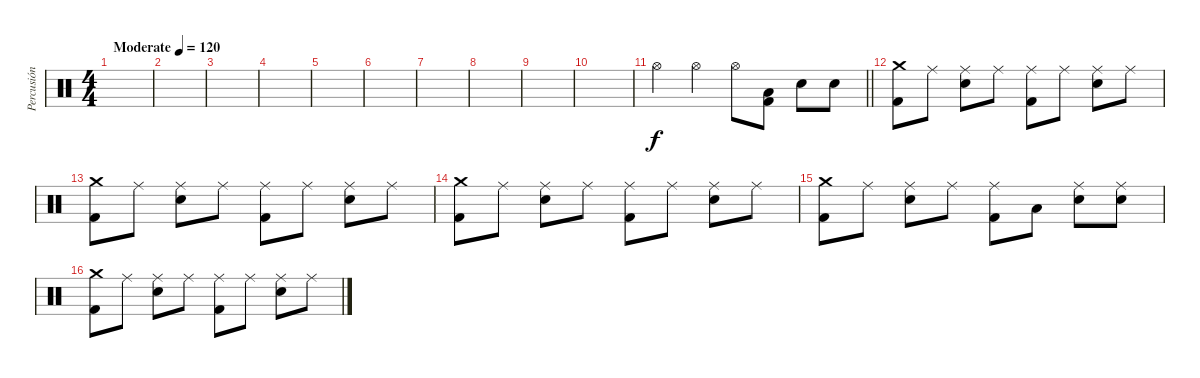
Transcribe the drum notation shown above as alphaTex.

\track ("Percusión" "Percusión") {instrument percussion}
\staff {score}
\articulation defaults
\ts (4 4)
\tempo (120 "Moderate")
\clef neutral
\ks c
|
|
|
|
|
|
|
|
|
|
\barLineRight lightlight "Hi-Hat (open)".4 "Hi-Hat (open)".4 "Hi-Hat (open)".8
("Low Floor Tom (hit)" "Kick (hit) 2").8 "Electric Snare (hit)".8 "Electric Snare (hit)".8 |
("Crash medium (hit)" "Kick (hit) 2").8 "Ride (middle)".8 ("Ride (middle)" "Electric Snare (hit)").8 "Ride (middle)".8 ("Ride (middle)" "Kick (hit) 2").8 "Ride (middle)".8 ("Ride (middle)" "Electric Snare (hit)").8 "Ride (middle)".8 |
("Crash medium (hit)" "Kick (hit) 2").8 "Ride (middle)".8 ("Ride (middle)" "Electric Snare (hit)").8 "Ride (middle)".8 ("Ride (middle)" "Kick (hit) 2").8 "Ride (middle)".8 ("Ride (middle)" "Electric Snare (hit)").8 "Ride (middle)".8 |
("Crash medium (hit)" "Kick (hit) 2").8 "Ride (middle)".8 ("Ride (middle)" "Electric Snare (hit)").8 "Ride (middle)".8 ("Ride (middle)" "Kick (hit) 2").8 "Ride (middle)".8 ("Ride (middle)" "Electric Snare (hit)").8 "Ride (middle)".8 |
("Crash medium (hit)" "Kick (hit) 2").8 "Ride (middle)".8 ("Ride (middle)" "Electric Snare (hit)").8 "Ride (middle)".8 ("Ride (middle)" "Kick (hit) 2").8 "Low Tom (hit)".8 ("Ride (middle)" "Electric Snare (hit)").8 ("Ride (middle)" "Electric Snare (hit)").8 |
("Crash medium (hit)" "Kick (hit) 2").8 "Ride (middle)".8 ("Ride (middle)" "Electric Snare (hit)").8 "Ride (middle)".8 ("Ride (middle)" "Kick (hit) 2").8 "Ride (middle)".8 ("Ride (middle)" "Electric Snare (hit)").8 "Ride (middle)".8
